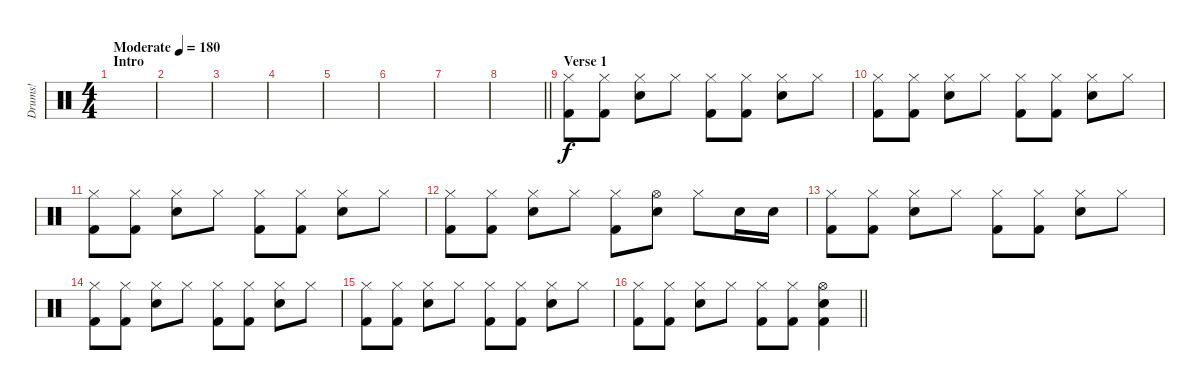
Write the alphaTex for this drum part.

\track ("Drums!" "Drums!") {instrument percussion}
\staff {score}
\articulation defaults
\ts (4 4)
\section ("" "Intro")
\tempo (180 "Moderate")
\clef neutral
\ks c
|
|
|
|
|
|
|
\barLineRight lightlight
|
\section ("" "Verse 1")
("Hi-Hat (closed)" "Kick (hit) 2").8 ("Hi-Hat (closed)" "Kick (hit) 2").8 ("Hi-Hat (closed)" "Electric Snare (hit)").8 "Hi-Hat (closed)".8 ("Hi-Hat (closed)" "Kick (hit) 2").8 ("Hi-Hat (closed)" "Kick (hit) 2").8 ("Hi-Hat (closed)" "Electric Snare (hit)").8 "Hi-Hat (closed)".8 |
("Hi-Hat (closed)" "Kick (hit) 2").8 ("Hi-Hat (closed)" "Kick (hit) 2").8 ("Hi-Hat (closed)" "Electric Snare (hit)").8 "Hi-Hat (closed)".8 ("Hi-Hat (closed)" "Kick (hit) 2").8 ("Hi-Hat (closed)" "Kick (hit) 2").8 ("Hi-Hat (closed)" "Electric Snare (hit)").8 "Hi-Hat (closed)".8 |
("Hi-Hat (closed)" "Kick (hit) 2").8 ("Hi-Hat (closed)" "Kick (hit) 2").8 ("Hi-Hat (closed)" "Electric Snare (hit)").8 "Hi-Hat (closed)".8 ("Hi-Hat (closed)" "Kick (hit) 2").8 ("Hi-Hat (closed)" "Kick (hit) 2").8 ("Hi-Hat (closed)" "Electric Snare (hit)").8 "Hi-Hat (closed)".8 |
("Hi-Hat (closed)" "Kick (hit) 2").8 ("Hi-Hat (closed)" "Kick (hit) 2").8 ("Hi-Hat (closed)" "Electric Snare (hit)").8 "Hi-Hat (closed)".8 ("Hi-Hat (closed)" "Kick (hit) 2").8 ("Hi-Hat (open)" "Electric Snare (hit)").8 "Hi-Hat (closed)".8 "Electric Snare (hit)".16 "Electric Snare (hit)".16 |
("Hi-Hat (closed)" "Kick (hit) 2").8 ("Hi-Hat (closed)" "Kick (hit) 2").8 ("Hi-Hat (closed)" "Electric Snare (hit)").8 "Hi-Hat (closed)".8 ("Hi-Hat (closed)" "Kick (hit) 2").8 ("Hi-Hat (closed)" "Kick (hit) 2").8 ("Hi-Hat (closed)" "Electric Snare (hit)").8 "Hi-Hat (closed)".8 |
("Hi-Hat (closed)" "Kick (hit) 2").8 ("Hi-Hat (closed)" "Kick (hit) 2").8 ("Hi-Hat (closed)" "Electric Snare (hit)").8 "Hi-Hat (closed)".8 ("Hi-Hat (closed)" "Kick (hit) 2").8 ("Hi-Hat (closed)" "Kick (hit) 2").8 ("Hi-Hat (closed)" "Electric Snare (hit)").8 "Hi-Hat (closed)".8 |
("Hi-Hat (closed)" "Kick (hit) 2").8 ("Hi-Hat (closed)" "Kick (hit) 2").8 ("Hi-Hat (closed)" "Electric Snare (hit)").8 "Hi-Hat (closed)".8 ("Hi-Hat (closed)" "Kick (hit) 2").8 ("Hi-Hat (closed)" "Kick (hit) 2").8 ("Hi-Hat (closed)" "Electric Snare (hit)").8 "Hi-Hat (closed)".8 |
\barLineRight lightlight
("Hi-Hat (closed)" "Kick (hit) 2").8 ("Hi-Hat (closed)" "Kick (hit) 2").8 ("Hi-Hat (closed)" "Electric Snare (hit)").8 "Hi-Hat (closed)".8 ("Hi-Hat (closed)" "Kick (hit) 2").8 ("Hi-Hat (closed)" "Kick (hit) 2").8 ("Hi-Hat (open)" "Electric Snare (hit)" "Kick (hit) 2").4
